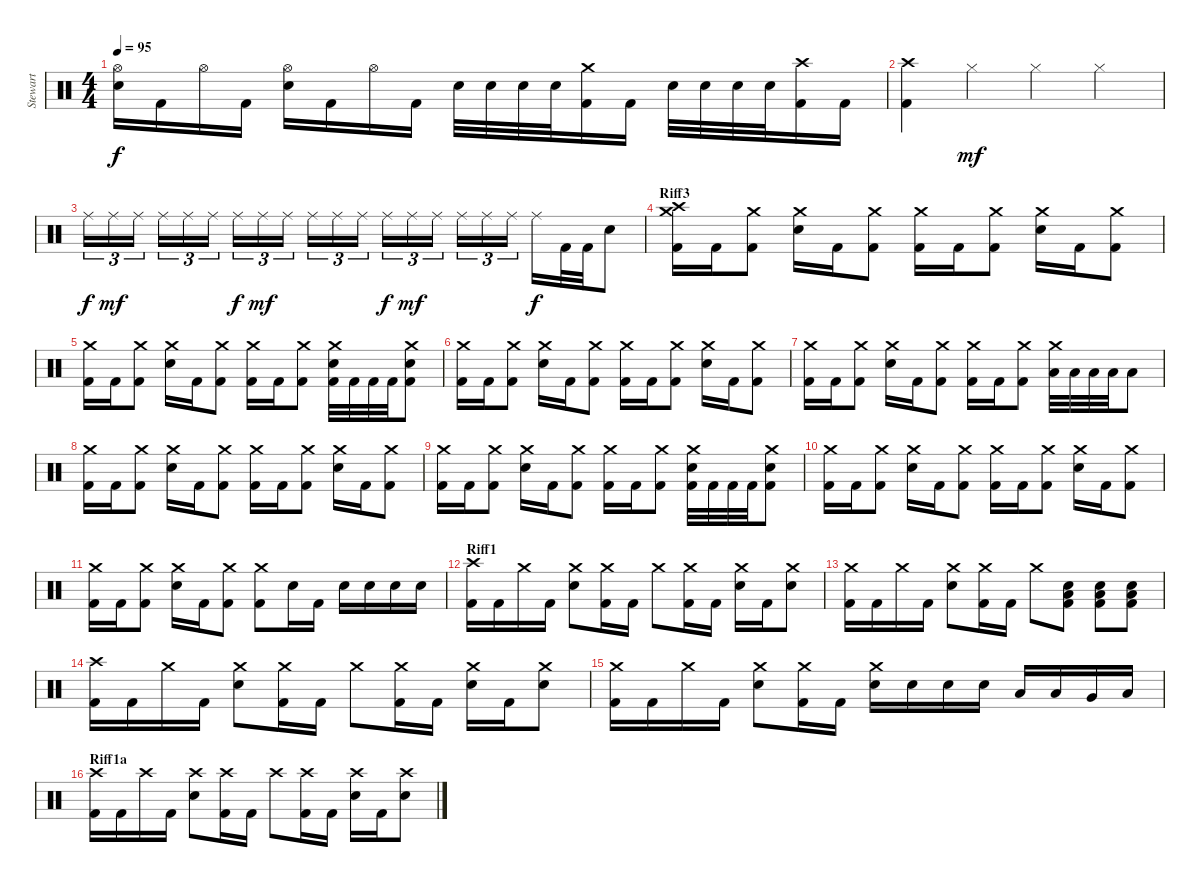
\track ("Stewart" "Stewart") {instrument percussion}
\staff {score}
\articulation defaults
\ts (4 4)
\tempo 95
\clef neutral
\ks c
("Hi-Hat (open)" "Snare (hit) 2").16{dy f} "Kick (hit) 2".16 "Hi-Hat (open)".16 "Kick (hit) 2".16 ("Hi-Hat (open)" "Snare (hit) 2").16 "Kick (hit) 2".16 "Hi-Hat (open)".16 "Kick (hit) 2".16 "Snare (hit) 2".32 "Snare (hit) 2".32 "Snare (hit) 2".32 "Snare (hit) 2".32 ("Crash medium (hit)" "Kick (hit) 2").16 "Kick (hit) 2".16 "Snare (hit) 2".32 "Snare (hit) 2".32 "Snare (hit) 2".32 "Snare (hit) 2".32 ("Crash high (hit)" "Kick (hit) 2").16 "Kick (hit) 2".16 |
("Crash high (hit)" "Kick (hit) 2").4 "Hi-Hat (closed)".4{dy mf} "Hi-Hat (closed)".4 "Hi-Hat (closed)".4 |
"Ride (middle)".16{tu (3 2) dy f} "Ride (middle)".16{tu (3 2) dy mf} "Ride (middle)".16{tu (3 2)} "Ride (middle)".16{tu (3 2)} "Ride (middle)".16{tu (3 2)} "Ride (middle)".16{tu (3 2)} "Ride (middle)".16{tu (3 2) dy f} "Ride (middle)".16{tu (3 2) dy mf} "Ride (middle)".16{tu (3 2)} "Ride (middle)".16{tu (3 2)} "Ride (middle)".16{tu (3 2)} "Ride (middle)".16{tu (3 2)} "Ride (middle)".16{tu (3 2) dy f} "Ride (middle)".16{tu (3 2) dy mf} "Ride (middle)".16{tu (3 2)} "Ride (middle)".16{tu (3 2)} "Ride (middle)".16{tu (3 2)} "Ride (middle)".16{tu (3 2)} "Ride (middle)".16{dy f} "Kick (hit) 2".32 "Kick (hit) 2".32 "Snare (hit) 2".8 |
\section ("" "Riff3")
("Crash medium (hit)" "Crash high (hit)" "Kick (hit) 2").16 "Kick (hit) 2".16 ("Crash medium (hit)" "Kick (hit) 2").8 ("Crash medium (hit)" "Snare (hit) 2").16 "Kick (hit) 2".16 ("Crash medium (hit)" "Kick (hit) 2").8 ("Crash medium (hit)" "Kick (hit) 2").16 "Kick (hit) 2".16 ("Crash medium (hit)" "Kick (hit) 2").8 ("Crash medium (hit)" "Snare (hit) 2").16 "Kick (hit) 2".16 ("Crash medium (hit)" "Kick (hit) 2").8 |
("Crash medium (hit)" "Kick (hit) 2").16 "Kick (hit) 2".16 ("Crash medium (hit)" "Kick (hit) 2").8 ("Crash medium (hit)" "Snare (hit) 2").16 "Kick (hit) 2".16 ("Crash medium (hit)" "Kick (hit) 2").8 ("Crash medium (hit)" "Kick (hit) 2").16 "Kick (hit) 2".16 ("Crash medium (hit)" "Kick (hit) 2").8 ("Crash medium (hit)" "Snare (hit) 2" "Kick (hit) 2").32 "Kick (hit) 2".32 "Kick (hit) 2".32 "Kick (hit) 2".32 ("Crash medium (hit)" "Snare (hit) 2" "Kick (hit) 2").8 |
("Crash medium (hit)" "Kick (hit) 2").16 "Kick (hit) 2".16 ("Crash medium (hit)" "Kick (hit) 2").8 ("Crash medium (hit)" "Snare (hit) 2").16 "Kick (hit) 2".16 ("Crash medium (hit)" "Kick (hit) 2").8 ("Crash medium (hit)" "Kick (hit) 2").16 "Kick (hit) 2".16 ("Crash medium (hit)" "Kick (hit) 2").8 ("Crash medium (hit)" "Snare (hit) 2").16 "Kick (hit) 2".16 ("Crash medium (hit)" "Kick (hit) 2").8 |
("Crash medium (hit)" "Kick (hit) 2").16 "Kick (hit) 2".16 ("Crash medium (hit)" "Kick (hit) 2").8 ("Crash medium (hit)" "Snare (hit) 2").16 "Kick (hit) 2".16 ("Crash medium (hit)" "Kick (hit) 2").8 ("Crash medium (hit)" "Kick (hit) 2").16 "Kick (hit) 2".16 ("Crash medium (hit)" "Kick (hit) 2").8 ("Crash medium (hit)" "Low Tom (hit)").32 "Low Tom (hit)".32 "Low Tom (hit)".32 "Low Tom (hit)".32 "Low Tom (hit)".8 |
("Crash medium (hit)" "Kick (hit) 2").16 "Kick (hit) 2".16 ("Crash medium (hit)" "Kick (hit) 2").8 ("Crash medium (hit)" "Snare (hit) 2").16 "Kick (hit) 2".16 ("Crash medium (hit)" "Kick (hit) 2").8 ("Crash medium (hit)" "Kick (hit) 2").16 "Kick (hit) 2".16 ("Crash medium (hit)" "Kick (hit) 2").8 ("Crash medium (hit)" "Snare (hit) 2").16 "Kick (hit) 2".16 ("Crash medium (hit)" "Kick (hit) 2").8 |
("Crash medium (hit)" "Kick (hit) 2").16 "Kick (hit) 2".16 ("Crash medium (hit)" "Kick (hit) 2").8 ("Crash medium (hit)" "Snare (hit) 2").16 "Kick (hit) 2".16 ("Crash medium (hit)" "Kick (hit) 2").8 ("Crash medium (hit)" "Kick (hit) 2").16 "Kick (hit) 2".16 ("Crash medium (hit)" "Kick (hit) 2").8 ("Crash medium (hit)" "Snare (hit) 2" "Kick (hit) 2").32 "Kick (hit) 2".32 "Kick (hit) 2".32 "Kick (hit) 2".32 ("Crash medium (hit)" "Snare (hit) 2" "Kick (hit) 2").8 |
("Crash medium (hit)" "Kick (hit) 2").16 "Kick (hit) 2".16 ("Crash medium (hit)" "Kick (hit) 2").8 ("Crash medium (hit)" "Snare (hit) 2").16 "Kick (hit) 2".16 ("Crash medium (hit)" "Kick (hit) 2").8 ("Crash medium (hit)" "Kick (hit) 2").16 "Kick (hit) 2".16 ("Crash medium (hit)" "Kick (hit) 2").8 ("Crash medium (hit)" "Snare (hit) 2").16 "Kick (hit) 2".16 ("Crash medium (hit)" "Kick (hit) 2").8 |
("Crash medium (hit)" "Kick (hit) 2").16 "Kick (hit) 2".16 ("Crash medium (hit)" "Kick (hit) 2").8 ("Crash medium (hit)" "Snare (hit) 2").16 "Kick (hit) 2".16 ("Crash medium (hit)" "Kick (hit) 2").8 ("Crash medium (hit)" "Kick (hit) 2").8 "Snare (hit) 2".16 "Kick (hit) 2".16 "Snare (hit) 2".16 "Snare (hit) 2".16 "Snare (hit) 2".16 "Snare (hit) 2".16 |
\section ("" "Riff1")
("Crash high (hit)" "Kick (hit) 2").16 "Kick (hit) 2".16 "Crash medium (hit)".16 "Kick (hit) 2".16 ("Crash medium (hit)" "Snare (hit) 2").8 ("Crash medium (hit)" "Kick (hit) 2").16 "Kick (hit) 2".16 "Crash medium (hit)".8 ("Crash medium (hit)" "Kick (hit) 2").16 "Kick (hit) 2".16 ("Crash medium (hit)" "Snare (hit) 2").16 "Kick (hit) 2".16 ("Crash medium (hit)" "Snare (hit) 2").8 |
("Crash medium (hit)" "Kick (hit) 2").16 "Kick (hit) 2".16 "Crash medium (hit)".16 "Kick (hit) 2".16 ("Crash medium (hit)" "Snare (hit) 2").8 ("Crash medium (hit)" "Kick (hit) 2").16 "Kick (hit) 2".16 "Crash medium (hit)".8 ("Snare (hit) 2" "Low Floor Tom (hit)" "Kick (hit) 2").8 ("Low Floor Tom (hit)" "Kick (hit) 2" "Snare (hit) 2").8 ("Low Floor Tom (hit)" "Kick (hit) 2" "Snare (hit) 2").8 |
("Crash high (hit)" "Kick (hit) 2").16 "Kick (hit) 2".16 "Crash medium (hit)".16 "Kick (hit) 2".16 ("Crash medium (hit)" "Snare (hit) 2").8 ("Crash medium (hit)" "Kick (hit) 2").16 "Kick (hit) 2".16 "Crash medium (hit)".8 ("Crash medium (hit)" "Kick (hit) 2").16 "Kick (hit) 2".16 ("Crash medium (hit)" "Snare (hit) 2").16 "Kick (hit) 2".16 ("Crash medium (hit)" "Snare (hit) 2").8 |
("Crash medium (hit)" "Kick (hit) 2").16 "Kick (hit) 2".16 "Crash medium (hit)".16 "Kick (hit) 2".16 ("Crash medium (hit)" "Snare (hit) 2").8 ("Crash medium (hit)" "Kick (hit) 2").16 "Kick (hit) 2".16 ("Crash medium (hit)" "Electric Snare (hit)").16 "Electric Snare (hit)".16 "Electric Snare (hit)".16 "Electric Snare (hit)".16 "Low Tom (hit)".16 "Low Tom (hit)".16 "Very Low Tom (hit)".16 "Low Floor Tom (hit)".16 |
\section ("" "Riff1a")
("Crash high (hit)" "Kick (hit) 2").16 "Kick (hit) 2".16 "Crash high (hit)".16 "Kick (hit) 2".16 ("Crash high (hit)" "Snare (hit) 2").8 ("Crash high (hit)" "Kick (hit) 2").16 "Kick (hit) 2".16 "Crash high (hit)".8 ("Crash high (hit)" "Kick (hit) 2").16 "Kick (hit) 2".16 ("Crash high (hit)" "Snare (hit) 2").16 "Kick (hit) 2".16 ("Crash high (hit)" "Snare (hit) 2").8
